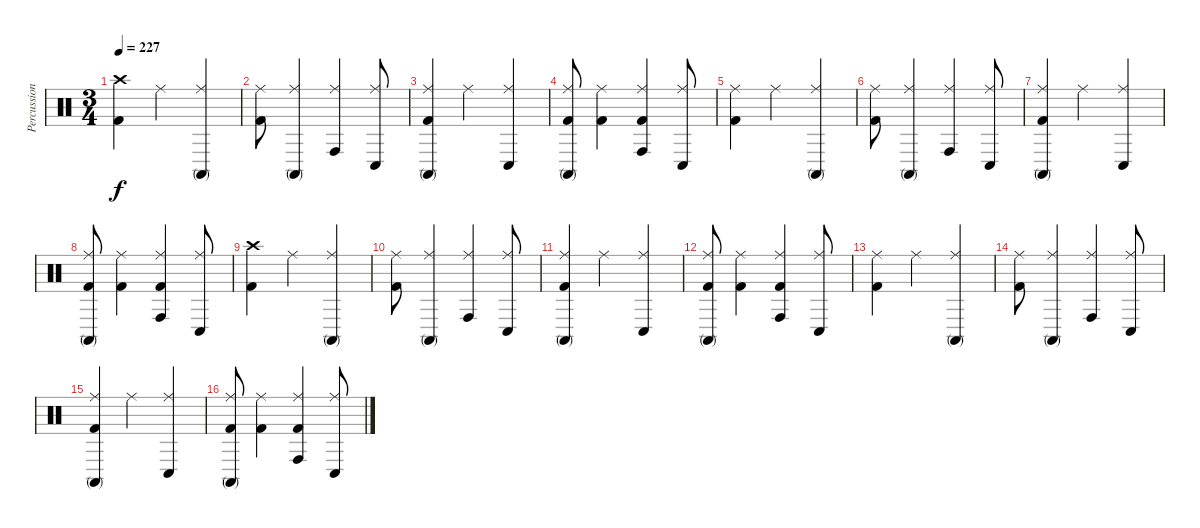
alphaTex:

\track ("Percussion" "Percussion") {instrument percussion}
\staff {score}
\articulation defaults
\ts (3 4)
\tempo 227
\clef neutral
\ks c
("Crash high (hit)" "Kick (hit) 2").4{dy f} "Ride (middle)".4 ("Ride (middle)" "Conga high (mute)").4 |
("Ride (middle)" "Kick (hit) 2").8 ("Ride (middle)" "Conga high (mute)").4 ("Ride (middle)" "Conga high (hit)").4 ("Ride (middle)" "Conga low (hit)").8 |
("Ride (middle)" "Conga high (mute)" "Kick (hit) 2").4 "Ride (middle)".4 ("Ride (middle)" "Conga low (hit)").4 |
("Ride (middle)" "Conga high (mute)" "Kick (hit) 2").8 ("Ride (middle)" "Kick (hit) 2").4 ("Ride (middle)" "Conga high (hit)" "Kick (hit) 2").4 ("Ride (middle)" "Conga low (hit)").8 |
("Ride (middle)" "Kick (hit) 2").4 "Ride (middle)".4 ("Ride (middle)" "Conga high (mute)").4 |
("Ride (middle)" "Kick (hit) 2").8 ("Ride (middle)" "Conga high (mute)").4 ("Ride (middle)" "Conga high (hit)").4 ("Ride (middle)" "Conga low (hit)").8 |
("Ride (middle)" "Conga high (mute)" "Kick (hit) 2").4 "Ride (middle)".4 ("Ride (middle)" "Conga low (hit)").4 |
("Ride (middle)" "Conga high (mute)" "Kick (hit) 2").8 ("Ride (middle)" "Kick (hit) 2").4 ("Ride (middle)" "Conga high (hit)" "Kick (hit) 2").4 ("Ride (middle)" "Conga low (hit)").8 |
("Crash high (hit)" "Kick (hit) 2").4 "Ride (middle)".4 ("Ride (middle)" "Conga high (mute)").4 |
("Ride (middle)" "Kick (hit) 2").8 ("Ride (middle)" "Conga high (mute)").4 ("Ride (middle)" "Conga high (hit)").4 ("Ride (middle)" "Conga low (hit)").8 |
("Ride (middle)" "Conga high (mute)" "Kick (hit) 2").4 "Ride (middle)".4 ("Ride (middle)" "Conga low (hit)").4 |
("Ride (middle)" "Conga high (mute)" "Kick (hit) 2").8 ("Ride (middle)" "Kick (hit) 2").4 ("Ride (middle)" "Conga high (hit)" "Kick (hit) 2").4 ("Ride (middle)" "Conga low (hit)").8 |
("Ride (middle)" "Kick (hit) 2").4 "Ride (middle)".4 ("Ride (middle)" "Conga high (mute)").4 |
("Ride (middle)" "Kick (hit) 2").8 ("Ride (middle)" "Conga high (mute)").4 ("Ride (middle)" "Conga high (hit)").4 ("Ride (middle)" "Conga low (hit)").8 |
("Ride (middle)" "Conga high (mute)" "Kick (hit) 2").4 "Ride (middle)".4 ("Ride (middle)" "Conga low (hit)").4 |
("Ride (middle)" "Conga high (mute)" "Kick (hit) 2").8 ("Ride (middle)" "Kick (hit) 2").4 ("Ride (middle)" "Conga high (hit)" "Kick (hit) 2").4 ("Ride (middle)" "Conga low (hit)").8
